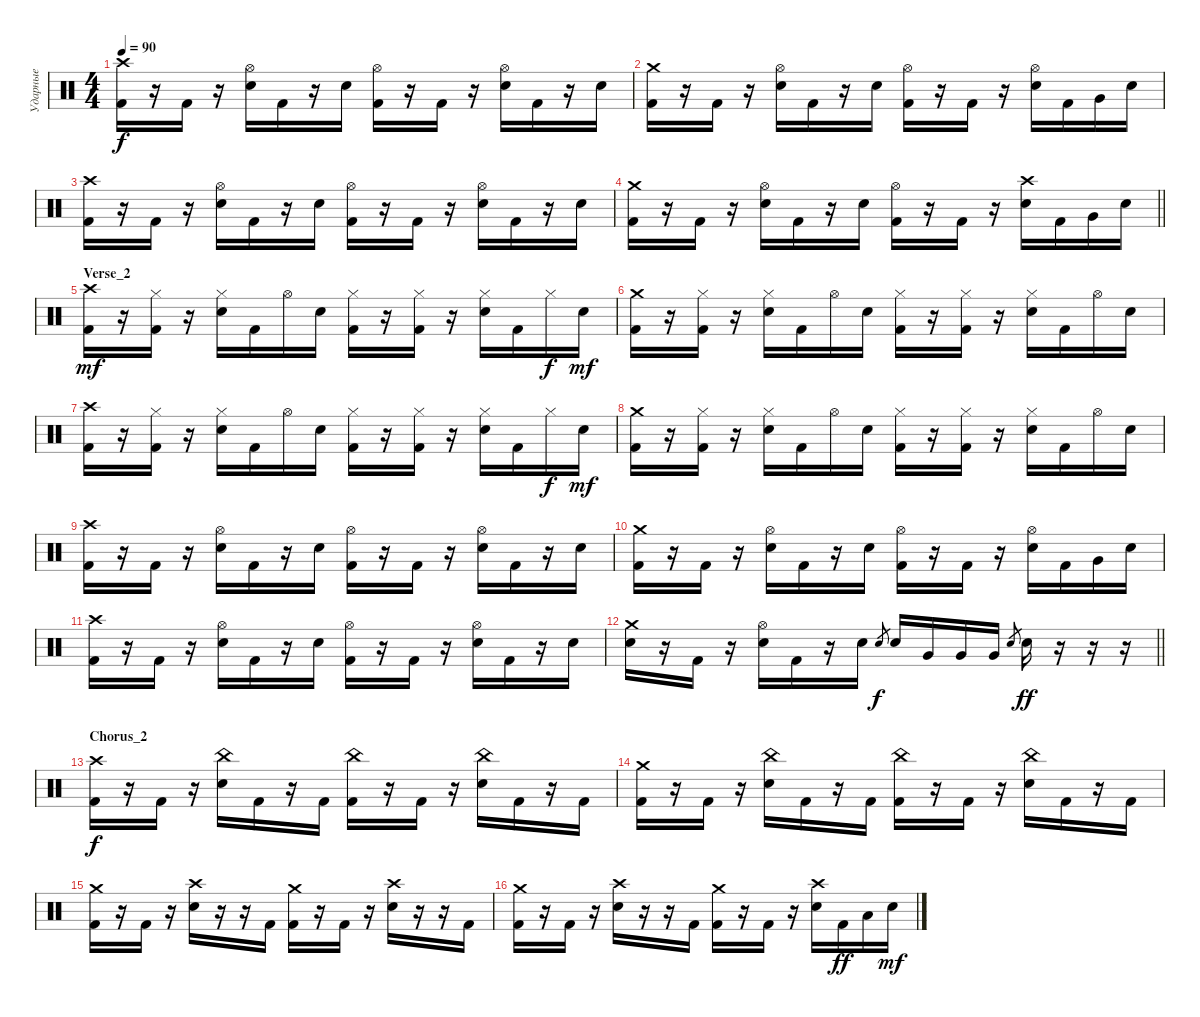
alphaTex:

\track ("Ударные" "Ударные") {instrument percussion}
\staff {score}
\articulation defaults
\ts (4 4)
\tempo 90
\clef neutral
\ks c
("Crash high (hit)" "Kick (hit) 2").16{dy f} r.16 "Kick (hit) 2".16 r.16 ("Hi-Hat (open)" "Electric Snare (hit)").16 "Kick (hit) 2".16 r.16 "Electric Snare (hit)".16 ("Hi-Hat (open)" "Kick (hit) 2").16 r.16 "Kick (hit) 2".16 r.16 ("Hi-Hat (open)" "Electric Snare (hit)").16 "Kick (hit) 2".16 r.16 "Electric Snare (hit)".16 |
("Crash medium (hit)" "Kick (hit) 2").16 r.16 "Kick (hit) 2".16 r.16 ("Hi-Hat (open)" "Electric Snare (hit)").16 "Kick (hit) 2".16 r.16 "Electric Snare (hit)".16 ("Hi-Hat (open)" "Kick (hit) 2").16 r.16 "Kick (hit) 2".16 r.16 ("Hi-Hat (open)" "Electric Snare (hit)").16 "Kick (hit) 2".16 "Very Low Tom (hit)".16 "Electric Snare (hit)".16 |
("Crash high (hit)" "Kick (hit) 2").16 r.16 "Kick (hit) 2".16 r.16 ("Hi-Hat (open)" "Electric Snare (hit)").16 "Kick (hit) 2".16 r.16 "Electric Snare (hit)".16 ("Hi-Hat (open)" "Kick (hit) 2").16 r.16 "Kick (hit) 2".16 r.16 ("Hi-Hat (open)" "Electric Snare (hit)").16 "Kick (hit) 2".16 r.16 "Electric Snare (hit)".16 |
\barLineRight lightlight
("Crash medium (hit)" "Kick (hit) 2").16 r.16 "Kick (hit) 2".16 r.16 ("Hi-Hat (open)" "Electric Snare (hit)").16 "Kick (hit) 2".16 r.16 "Electric Snare (hit)".16 ("Hi-Hat (open)" "Kick (hit) 2").16 r.16 "Kick (hit) 2".16 r.16 ("Crash high (hit)" "Electric Snare (hit)").16 "Kick (hit) 2".16 "Very Low Tom (hit)".16 "Electric Snare (hit)".16 |
\section ("" "Verse_2")
("Crash high (hit)" "Kick (hit) 2").16{dy mf} r.16 ("Hi-Hat (closed)" "Kick (hit) 2").16 r.16 ("Hi-Hat (closed)" "Electric Snare (hit)").16 "Kick (hit) 2".16 "Hi-Hat (open)".16 "Electric Snare (hit)".16 ("Hi-Hat (closed)" "Kick (hit) 2").16 r.16 ("Hi-Hat (closed)" "Kick (hit) 2").16 r.16 ("Hi-Hat (closed)" "Electric Snare (hit)").16 "Kick (hit) 2".16 "Hi-Hat (closed)".16{dy f} "Electric Snare (hit)".16{dy mf} |
("Crash medium (hit)" "Kick (hit) 2").16 r.16 ("Hi-Hat (closed)" "Kick (hit) 2").16 r.16 ("Hi-Hat (closed)" "Electric Snare (hit)").16 "Kick (hit) 2".16 "Hi-Hat (open)".16 "Electric Snare (hit)".16 ("Hi-Hat (closed)" "Kick (hit) 2").16 r.16 ("Hi-Hat (closed)" "Kick (hit) 2").16 r.16 ("Hi-Hat (closed)" "Electric Snare (hit)").16 "Kick (hit) 2".16 "Hi-Hat (open)".16 "Electric Snare (hit)".16 |
("Crash high (hit)" "Kick (hit) 2").16 r.16 ("Hi-Hat (closed)" "Kick (hit) 2").16 r.16 ("Hi-Hat (closed)" "Electric Snare (hit)").16 "Kick (hit) 2".16 "Hi-Hat (open)".16 "Electric Snare (hit)".16 ("Hi-Hat (closed)" "Kick (hit) 2").16 r.16 ("Hi-Hat (closed)" "Kick (hit) 2").16 r.16 ("Hi-Hat (closed)" "Electric Snare (hit)").16 "Kick (hit) 2".16 "Hi-Hat (closed)".16{dy f} "Electric Snare (hit)".16{dy mf} |
("Crash medium (hit)" "Kick (hit) 2").16 r.16 ("Hi-Hat (closed)" "Kick (hit) 2").16 r.16 ("Hi-Hat (closed)" "Electric Snare (hit)").16 "Kick (hit) 2".16 "Hi-Hat (open)".16 "Electric Snare (hit)".16 ("Hi-Hat (closed)" "Kick (hit) 2").16 r.16 ("Hi-Hat (closed)" "Kick (hit) 2").16 r.16 ("Hi-Hat (closed)" "Electric Snare (hit)").16 "Kick (hit) 2".16 "Hi-Hat (open)".16 "Electric Snare (hit)".16 |
("Crash high (hit)" "Kick (hit) 2").16 r.16 "Kick (hit) 2".16 r.16 ("Hi-Hat (open)" "Electric Snare (hit)").16 "Kick (hit) 2".16 r.16 "Electric Snare (hit)".16 ("Hi-Hat (open)" "Kick (hit) 2").16 r.16 "Kick (hit) 2".16 r.16 ("Hi-Hat (open)" "Electric Snare (hit)").16 "Kick (hit) 2".16 r.16 "Electric Snare (hit)".16 |
("Crash medium (hit)" "Kick (hit) 2").16 r.16 "Kick (hit) 2".16 r.16 ("Hi-Hat (open)" "Electric Snare (hit)").16 "Kick (hit) 2".16 r.16 "Electric Snare (hit)".16 ("Hi-Hat (open)" "Kick (hit) 2").16 r.16 "Kick (hit) 2".16 r.16 ("Hi-Hat (open)" "Electric Snare (hit)").16 "Kick (hit) 2".16 "Very Low Tom (hit)".16 "Electric Snare (hit)".16 |
("Crash high (hit)" "Kick (hit) 2").16 r.16 "Kick (hit) 2".16 r.16 ("Hi-Hat (open)" "Electric Snare (hit)").16 "Kick (hit) 2".16 r.16 "Electric Snare (hit)".16 ("Hi-Hat (open)" "Kick (hit) 2").16 r.16 "Kick (hit) 2".16 r.16 ("Hi-Hat (open)" "Electric Snare (hit)").16 "Kick (hit) 2".16 r.16 "Electric Snare (hit)".16 |
\barLineRight lightlight
("Crash medium (hit)" "Electric Snare (hit)").16 r.16 "Kick (hit) 2".16 r.16 ("Hi-Hat (open)" "Electric Snare (hit)").16 "Kick (hit) 2".16 r.16 "Electric Snare (hit)".16 "Electric Snare (hit)".8{gr dy f} "Electric Snare (hit)".16 "Very Low Tom (hit)".16 "Very Low Tom (hit)".16 "Very Low Tom (hit)".16 "Electric Snare (hit)".8{gr} "Electric Snare (hit)".16{dy ff} r.16 r.16 r.16 |
\section ("" "Chorus_2")
("Crash high (hit)" "Kick (hit) 2").16{dy f} r.16 "Kick (hit) 2".16 r.16 ("China (hit)" "Electric Snare (hit)").16 "Kick (hit) 2".16 r.16 "Kick (hit) 2".16 ("China (hit)" "Kick (hit) 2").16 r.16 "Kick (hit) 2".16 r.16 ("China (hit)" "Electric Snare (hit)").16 "Kick (hit) 2".16 r.16 "Kick (hit) 2".16 |
("Crash medium (hit)" "Kick (hit) 2").16 r.16 "Kick (hit) 2".16 r.16 ("China (hit)" "Electric Snare (hit)").16 "Kick (hit) 2".16 r.16 "Kick (hit) 2".16 ("China (hit)" "Kick (hit) 2").16 r.16 "Kick (hit) 2".16 r.16 ("China (hit)" "Electric Snare (hit)").16 "Kick (hit) 2".16 r.16 "Kick (hit) 2".16 |
("Crash medium (hit)" "Kick (hit) 2").16 r.16 "Kick (hit) 2".16 r.16 ("Crash high (hit)" "Electric Snare (hit)").16 r.16 r.16 "Kick (hit) 2".16 ("Crash medium (hit)" "Kick (hit) 2").16 r.16 "Kick (hit) 2".16 r.16 ("Crash high (hit)" "Electric Snare (hit)").16 r.16 r.16 "Kick (hit) 2".16 |
("Crash medium (hit)" "Kick (hit) 2").16 r.16 "Kick (hit) 2".16 r.16 ("Crash high (hit)" "Electric Snare (hit)").16 r.16 r.16 "Kick (hit) 2".16 ("Crash medium (hit)" "Kick (hit) 2").16 r.16 "Kick (hit) 2".16 r.16 ("Crash high (hit)" "Electric Snare (hit)").16 "Kick (hit) 2".16{dy ff} "Low Tom (hit)".16 "Electric Snare (hit)".16{dy mf}
